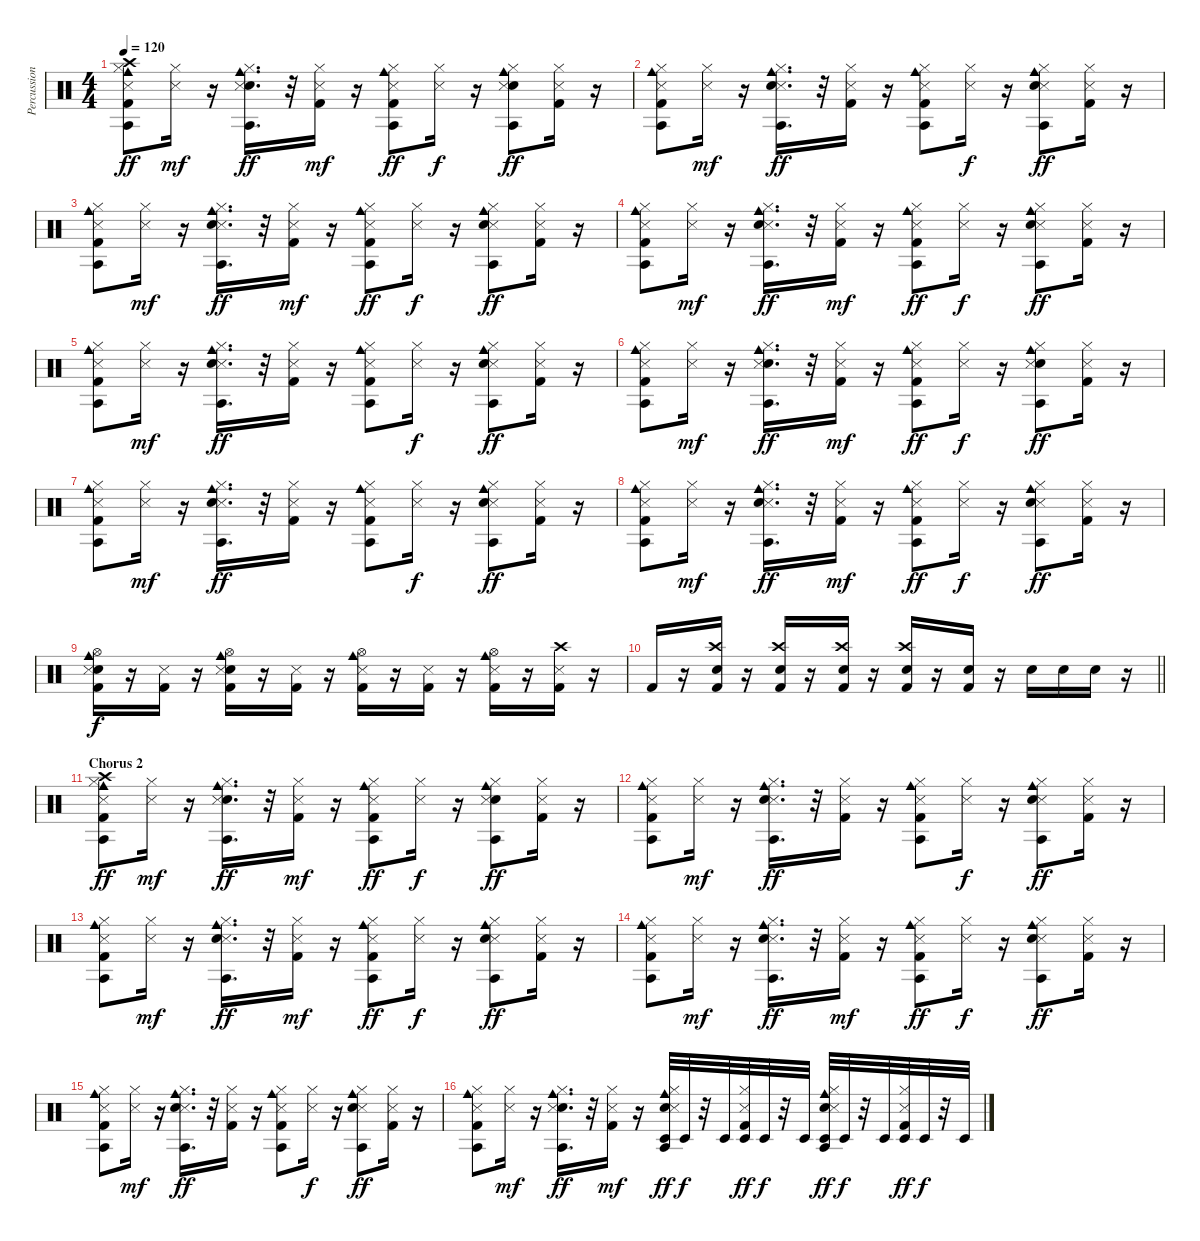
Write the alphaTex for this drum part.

\track ("Percussion" "Percussion") {instrument percussion}
\staff {score}
\articulation defaults
\ts (4 4)
\tempo 120
\clef neutral
\ks c
("Kick (hit) 2" "Hi-Hat (closed)" "Agogo tow (hit)" "Crash high (hit)" "Cowbell medium (hit)" "Snare (side stick) 3").8{dy ff} ("Hi-Hat (closed)" "Snare (side stick) 3").16{dy mf} r.16 ("Snare (hit) 2" "Hi-Hat (closed)" "Agogo tow (hit)" "Cowbell medium (hit)" "Snare (side stick) 3").16{d dy ff} r.32 ("Kick (hit) 2" "Hi-Hat (closed)" "Snare (side stick) 3").16{dy mf} r.16 ("Kick (hit) 2" "Hi-Hat (closed)" "Agogo tow (hit)" "Cowbell medium (hit)" "Snare (side stick) 3").8{dy ff} ("Hi-Hat (closed)" "Snare (side stick) 3").16{dy f} r.16 ("Snare (hit) 2" "Hi-Hat (closed)" "Agogo tow (hit)" "Cowbell medium (hit)" "Snare (side stick) 3").8{dy ff} ("Kick (hit) 2" "Hi-Hat (closed)" "Snare (side stick) 3").16 r.16 |
("Cowbell medium (hit)" "Snare (side stick) 3" "Hi-Hat (closed)" "Agogo tow (hit)" "Kick (hit) 2").8 ("Snare (side stick) 3" "Hi-Hat (closed)").16{dy mf} r.16 ("Cowbell medium (hit)" "Snare (side stick) 3" "Hi-Hat (closed)" "Agogo tow (hit)" "Snare (hit) 2").16{d dy ff} r.32 ("Snare (side stick) 3" "Hi-Hat (closed)" "Kick (hit) 2").16 r.16 ("Cowbell medium (hit)" "Snare (side stick) 3" "Hi-Hat (closed)" "Agogo tow (hit)" "Kick (hit) 2").8 ("Snare (side stick) 3" "Hi-Hat (closed)").16{dy f} r.16 ("Cowbell medium (hit)" "Snare (side stick) 3" "Hi-Hat (closed)" "Agogo tow (hit)" "Snare (hit) 2").8{dy ff} ("Snare (side stick) 3" "Hi-Hat (closed)" "Kick (hit) 2").16 r.16 |
("Snare (side stick) 3" "Agogo tow (hit)" "Kick (hit) 2" "Cowbell medium (hit)" "Hi-Hat (closed)").8 ("Snare (side stick) 3" "Hi-Hat (closed)").16{dy mf} r.16 ("Snare (side stick) 3" "Agogo tow (hit)" "Snare (hit) 2" "Cowbell medium (hit)" "Hi-Hat (closed)").16{d dy ff} r.32 ("Snare (side stick) 3" "Kick (hit) 2" "Hi-Hat (closed)").16{dy mf} r.16 ("Snare (side stick) 3" "Agogo tow (hit)" "Kick (hit) 2" "Cowbell medium (hit)" "Hi-Hat (closed)").8{dy ff} ("Snare (side stick) 3" "Hi-Hat (closed)").16{dy f} r.16 ("Snare (side stick) 3" "Agogo tow (hit)" "Snare (hit) 2" "Cowbell medium (hit)" "Hi-Hat (closed)").8{dy ff} ("Snare (side stick) 3" "Kick (hit) 2" "Hi-Hat (closed)").16 r.16 |
("Cowbell medium (hit)" "Agogo tow (hit)" "Snare (side stick) 3" "Kick (hit) 2" "Hi-Hat (closed)").8 ("Snare (side stick) 3" "Hi-Hat (closed)").16{dy mf} r.16 ("Cowbell medium (hit)" "Agogo tow (hit)" "Snare (side stick) 3" "Snare (hit) 2" "Hi-Hat (closed)").16{d dy ff} r.32 ("Snare (side stick) 3" "Kick (hit) 2" "Hi-Hat (closed)").16{dy mf} r.16 ("Cowbell medium (hit)" "Agogo tow (hit)" "Snare (side stick) 3" "Kick (hit) 2" "Hi-Hat (closed)").8{dy ff} ("Snare (side stick) 3" "Hi-Hat (closed)").16{dy f} r.16 ("Cowbell medium (hit)" "Agogo tow (hit)" "Snare (side stick) 3" "Snare (hit) 2" "Hi-Hat (closed)").8{dy ff} ("Snare (side stick) 3" "Kick (hit) 2" "Hi-Hat (closed)").16 r.16 |
("Hi-Hat (closed)" "Cowbell medium (hit)" "Snare (side stick) 3" "Agogo tow (hit)" "Kick (hit) 2").8 ("Hi-Hat (closed)" "Snare (side stick) 3").16{dy mf} r.16 ("Hi-Hat (closed)" "Cowbell medium (hit)" "Snare (side stick) 3" "Agogo tow (hit)" "Snare (hit) 2").16{d dy ff} r.32 ("Hi-Hat (closed)" "Snare (side stick) 3" "Kick (hit) 2").16 r.16 ("Hi-Hat (closed)" "Cowbell medium (hit)" "Snare (side stick) 3" "Agogo tow (hit)" "Kick (hit) 2").8 ("Hi-Hat (closed)" "Snare (side stick) 3").16{dy f} r.16 ("Hi-Hat (closed)" "Cowbell medium (hit)" "Snare (side stick) 3" "Agogo tow (hit)" "Snare (hit) 2").8{dy ff} ("Hi-Hat (closed)" "Snare (side stick) 3" "Kick (hit) 2").16 r.16 |
("Kick (hit) 2" "Agogo tow (hit)" "Cowbell medium (hit)" "Snare (side stick) 3" "Hi-Hat (closed)").8 ("Snare (side stick) 3" "Hi-Hat (closed)").16{dy mf} r.16 ("Snare (hit) 2" "Agogo tow (hit)" "Cowbell medium (hit)" "Snare (side stick) 3" "Hi-Hat (closed)").16{d dy ff} r.32 ("Kick (hit) 2" "Snare (side stick) 3" "Hi-Hat (closed)").16{dy mf} r.16 ("Kick (hit) 2" "Agogo tow (hit)" "Cowbell medium (hit)" "Snare (side stick) 3" "Hi-Hat (closed)").8{dy ff} ("Snare (side stick) 3" "Hi-Hat (closed)").16{dy f} r.16 ("Snare (hit) 2" "Agogo tow (hit)" "Cowbell medium (hit)" "Snare (side stick) 3" "Hi-Hat (closed)").8{dy ff} ("Kick (hit) 2" "Snare (side stick) 3" "Hi-Hat (closed)").16 r.16 |
("Agogo tow (hit)" "Snare (side stick) 3" "Cowbell medium (hit)" "Hi-Hat (closed)" "Kick (hit) 2").8 ("Snare (side stick) 3" "Hi-Hat (closed)").16{dy mf} r.16 ("Agogo tow (hit)" "Snare (side stick) 3" "Cowbell medium (hit)" "Hi-Hat (closed)" "Snare (hit) 2").16{d dy ff} r.32 ("Snare (side stick) 3" "Hi-Hat (closed)" "Kick (hit) 2").16 r.16 ("Agogo tow (hit)" "Snare (side stick) 3" "Cowbell medium (hit)" "Hi-Hat (closed)" "Kick (hit) 2").8 ("Snare (side stick) 3" "Hi-Hat (closed)").16{dy f} r.16 ("Agogo tow (hit)" "Snare (side stick) 3" "Cowbell medium (hit)" "Hi-Hat (closed)" "Snare (hit) 2").8{dy ff} ("Snare (side stick) 3" "Hi-Hat (closed)" "Kick (hit) 2").16 r.16 |
("Cowbell medium (hit)" "Snare (side stick) 3" "Agogo tow (hit)" "Kick (hit) 2" "Hi-Hat (closed)").8 ("Snare (side stick) 3" "Hi-Hat (closed)").16{dy mf} r.16 ("Cowbell medium (hit)" "Snare (side stick) 3" "Agogo tow (hit)" "Snare (hit) 2" "Hi-Hat (closed)").16{d dy ff} r.32 ("Snare (side stick) 3" "Kick (hit) 2" "Hi-Hat (closed)").16{dy mf} r.16 ("Cowbell medium (hit)" "Snare (side stick) 3" "Agogo tow (hit)" "Kick (hit) 2" "Hi-Hat (closed)").8{dy ff} ("Snare (side stick) 3" "Hi-Hat (closed)").16{dy f} r.16 ("Cowbell medium (hit)" "Snare (side stick) 3" "Agogo tow (hit)" "Snare (hit) 2" "Hi-Hat (closed)").8{dy ff} ("Snare (side stick) 3" "Kick (hit) 2" "Hi-Hat (closed)").16 r.16 |
("Electric Snare (hit)" "Snare (side stick) 3" "Cowbell medium (hit)" "Hi-Hat (open)" "Kick (hit) 2").16{dy f} r.16 ("Snare (side stick) 3" "Kick (hit) 2").16 r.16 ("Electric Snare (hit)" "Snare (side stick) 3" "Cowbell medium (hit)" "Hi-Hat (open)" "Kick (hit) 2").16 r.16 ("Snare (side stick) 3" "Kick (hit) 2").16 r.16 ("Snare (side stick) 3" "Cowbell medium (hit)" "Hi-Hat (open)" "Kick (hit) 2").16 r.16 ("Snare (side stick) 3" "Kick (hit) 2").16 r.16 ("Snare (side stick) 3" "Cowbell medium (hit)" "Hi-Hat (open)" "Kick (hit) 2").16 r.16 ("Crash high (hit)" "Snare (side stick) 3" "Kick (hit) 2").16 r.16 |
\barLineRight lightlight "Kick (hit) 2".16
r.16 ("Crash high (hit)" "Snare (hit) 2" "Kick (hit) 2").16 r.16 ("Snare (hit) 2" "Crash high (hit)" "Kick (hit) 2").16 r.16 ("Snare (hit) 2" "Kick (hit) 2" "Crash high (hit)").16 r.16 ("Snare (hit) 2" "Crash high (hit)" "Kick (hit) 2").16 r.16 ("Snare (hit) 2" "Kick (hit) 2").16 r.16 "Snare (hit) 2".16 "Snare (hit) 2".16 "Snare (hit) 2".16 r.16 |
\section ("" "Chorus 2")
("Kick (hit) 2" "Hi-Hat (closed)" "Agogo tow (hit)" "Crash high (hit)" "Cowbell medium (hit)" "Snare (side stick) 3").8{dy ff} ("Hi-Hat (closed)" "Snare (side stick) 3").16{dy mf} r.16 ("Snare (hit) 2" "Hi-Hat (closed)" "Agogo tow (hit)" "Cowbell medium (hit)" "Snare (side stick) 3").16{d dy ff} r.32 ("Kick (hit) 2" "Hi-Hat (closed)" "Snare (side stick) 3").16{dy mf} r.16 ("Kick (hit) 2" "Hi-Hat (closed)" "Agogo tow (hit)" "Cowbell medium (hit)" "Snare (side stick) 3").8{dy ff} ("Hi-Hat (closed)" "Snare (side stick) 3").16{dy f} r.16 ("Snare (hit) 2" "Hi-Hat (closed)" "Agogo tow (hit)" "Cowbell medium (hit)" "Snare (side stick) 3").8{dy ff} ("Kick (hit) 2" "Hi-Hat (closed)" "Snare (side stick) 3").16 r.16 |
("Cowbell medium (hit)" "Snare (side stick) 3" "Hi-Hat (closed)" "Agogo tow (hit)" "Kick (hit) 2").8 ("Snare (side stick) 3" "Hi-Hat (closed)").16{dy mf} r.16 ("Cowbell medium (hit)" "Snare (side stick) 3" "Hi-Hat (closed)" "Agogo tow (hit)" "Snare (hit) 2").16{d dy ff} r.32 ("Snare (side stick) 3" "Hi-Hat (closed)" "Kick (hit) 2").16 r.16 ("Cowbell medium (hit)" "Snare (side stick) 3" "Hi-Hat (closed)" "Agogo tow (hit)" "Kick (hit) 2").8 ("Snare (side stick) 3" "Hi-Hat (closed)").16{dy f} r.16 ("Cowbell medium (hit)" "Snare (side stick) 3" "Hi-Hat (closed)" "Agogo tow (hit)" "Snare (hit) 2").8{dy ff} ("Snare (side stick) 3" "Hi-Hat (closed)" "Kick (hit) 2").16 r.16 |
("Snare (side stick) 3" "Agogo tow (hit)" "Kick (hit) 2" "Cowbell medium (hit)" "Hi-Hat (closed)").8 ("Snare (side stick) 3" "Hi-Hat (closed)").16{dy mf} r.16 ("Snare (side stick) 3" "Agogo tow (hit)" "Snare (hit) 2" "Cowbell medium (hit)" "Hi-Hat (closed)").16{d dy ff} r.32 ("Snare (side stick) 3" "Kick (hit) 2" "Hi-Hat (closed)").16{dy mf} r.16 ("Snare (side stick) 3" "Agogo tow (hit)" "Kick (hit) 2" "Cowbell medium (hit)" "Hi-Hat (closed)").8{dy ff} ("Snare (side stick) 3" "Hi-Hat (closed)").16{dy f} r.16 ("Snare (side stick) 3" "Agogo tow (hit)" "Snare (hit) 2" "Cowbell medium (hit)" "Hi-Hat (closed)").8{dy ff} ("Snare (side stick) 3" "Kick (hit) 2" "Hi-Hat (closed)").16 r.16 |
("Cowbell medium (hit)" "Agogo tow (hit)" "Snare (side stick) 3" "Kick (hit) 2" "Hi-Hat (closed)").8 ("Snare (side stick) 3" "Hi-Hat (closed)").16{dy mf} r.16 ("Cowbell medium (hit)" "Agogo tow (hit)" "Snare (side stick) 3" "Snare (hit) 2" "Hi-Hat (closed)").16{d dy ff} r.32 ("Snare (side stick) 3" "Kick (hit) 2" "Hi-Hat (closed)").16{dy mf} r.16 ("Cowbell medium (hit)" "Agogo tow (hit)" "Snare (side stick) 3" "Kick (hit) 2" "Hi-Hat (closed)").8{dy ff} ("Snare (side stick) 3" "Hi-Hat (closed)").16{dy f} r.16 ("Cowbell medium (hit)" "Agogo tow (hit)" "Snare (side stick) 3" "Snare (hit) 2" "Hi-Hat (closed)").8{dy ff} ("Snare (side stick) 3" "Kick (hit) 2" "Hi-Hat (closed)").16 r.16 |
("Hi-Hat (closed)" "Cowbell medium (hit)" "Snare (side stick) 3" "Agogo tow (hit)" "Kick (hit) 2").8 ("Hi-Hat (closed)" "Snare (side stick) 3").16{dy mf} r.16 ("Hi-Hat (closed)" "Cowbell medium (hit)" "Snare (side stick) 3" "Agogo tow (hit)" "Snare (hit) 2").16{d dy ff} r.32 ("Hi-Hat (closed)" "Snare (side stick) 3" "Kick (hit) 2").16 r.16 ("Hi-Hat (closed)" "Cowbell medium (hit)" "Snare (side stick) 3" "Agogo tow (hit)" "Kick (hit) 2").8 ("Hi-Hat (closed)" "Snare (side stick) 3").16{dy f} r.16 ("Hi-Hat (closed)" "Cowbell medium (hit)" "Snare (side stick) 3" "Agogo tow (hit)" "Snare (hit) 2").8{dy ff} ("Hi-Hat (closed)" "Snare (side stick) 3" "Kick (hit) 2").16 r.16 |
("Kick (hit) 2" "Agogo tow (hit)" "Cowbell medium (hit)" "Snare (side stick) 3" "Hi-Hat (closed)").8 ("Snare (side stick) 3" "Hi-Hat (closed)").16{dy mf} r.16 ("Snare (hit) 2" "Agogo tow (hit)" "Cowbell medium (hit)" "Snare (side stick) 3" "Hi-Hat (closed)").16{d dy ff} r.32 ("Kick (hit) 2" "Snare (side stick) 3" "Hi-Hat (closed)").16{dy mf} r.16 ("Snare (hit) 2" "Timbale low (hit)" "Agogo tow (hit)" "Cowbell medium (hit)" "Snare (side stick) 3" "Hi-Hat (closed)").32{dy ff} "Timbale low (hit)".32{dy f} r.32 "Timbale low (hit)".32 ("Timbale low (hit)" "Snare (side stick) 3" "Hi-Hat (closed)" "Kick (hit) 2").32{dy ff} "Timbale low (hit)".32{dy f} r.32 "Timbale low (hit)".32 ("Snare (hit) 2" "Agogo tow (hit)" "Cowbell medium (hit)" "Snare (side stick) 3" "Hi-Hat (closed)" "Timbale low (hit)").32{dy ff} "Timbale low (hit)".32{dy f} r.32 "Timbale low (hit)".32 ("Timbale low (hit)" "Kick (hit) 2" "Snare (side stick) 3" "Hi-Hat (closed)").32{dy ff} "Timbale low (hit)".32{dy f} r.32 "Timbale low (hit)".32
